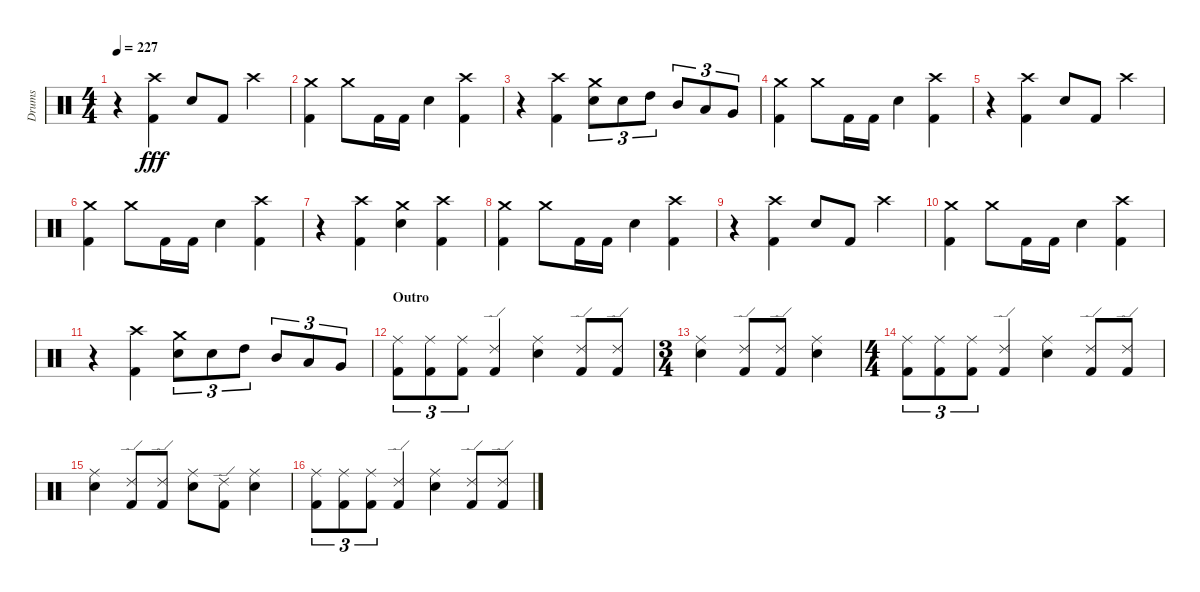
\track ("Drums" "Drums") {instrument percussion}
\staff {score}
\articulation defaults
\ts (4 4)
\tempo 227
\clef neutral
\ks c
r.4{dy fff} ("Kick (hit) 2" "Crash high (hit)").4 "Electric Snare (hit)".8 "Kick (hit) 2".8 "Crash high (hit)".4 |
("Kick (hit) 2" "Crash medium (hit)").4 "Crash medium (hit)".8 "Kick (hit) 2".16 "Kick (hit) 2".16 "Electric Snare (hit)".4 ("Kick (hit) 2" "Crash high (hit)").4 |
r.4 ("Kick (hit) 2" "Crash high (hit)").4 ("Electric Snare (hit)" "Crash medium (hit)").8{tu (3 2)} "Electric Snare (hit)".8{tu (3 2)} "High Tom (hit)".8{tu (3 2)} "Mid Tom (hit)".8{tu (3 2)} "Low Tom (hit)".8{tu (3 2)} "Very Low Tom (hit)".8{tu (3 2)} |
("Kick (hit) 2" "Crash medium (hit)").4 "Crash medium (hit)".8 "Kick (hit) 2".16 "Kick (hit) 2".16 "Electric Snare (hit)".4 ("Kick (hit) 2" "Crash high (hit)").4 |
r.4 ("Kick (hit) 2" "Crash high (hit)").4 "Electric Snare (hit)".8 "Kick (hit) 2".8 "Crash high (hit)".4 |
("Kick (hit) 2" "Crash medium (hit)").4 "Crash medium (hit)".8 "Kick (hit) 2".16 "Kick (hit) 2".16 "Electric Snare (hit)".4 ("Kick (hit) 2" "Crash high (hit)").4 |
r.4 ("Kick (hit) 2" "Crash high (hit)").4 ("Electric Snare (hit)" "Crash medium (hit)").4 ("Kick (hit) 2" "Crash high (hit)").4 |
("Kick (hit) 2" "Crash medium (hit)").4 "Crash medium (hit)".8 "Kick (hit) 2".16 "Kick (hit) 2".16 "Electric Snare (hit)".4 ("Kick (hit) 2" "Crash high (hit)").4 |
r.4 ("Kick (hit) 2" "Crash high (hit)").4 "Electric Snare (hit)".8 "Kick (hit) 2".8 "Crash high (hit)".4 |
("Kick (hit) 2" "Crash medium (hit)").4 "Crash medium (hit)".8 "Kick (hit) 2".16 "Kick (hit) 2".16 "Electric Snare (hit)".4 ("Kick (hit) 2" "Crash high (hit)").4 |
r.4 ("Kick (hit) 2" "Crash high (hit)").4 ("Electric Snare (hit)" "Crash medium (hit)").8{tu (3 2)} "Electric Snare (hit)".8{tu (3 2)} "High Tom (hit)".8{tu (3 2)} "Mid Tom (hit)".8{tu (3 2)} "Low Tom (hit)".8{tu (3 2)} "Very Low Tom (hit)".8{tu (3 2)} |
\section ("" "Outro")
("Kick (hit) 2" "Ride (middle)").8{tu (3 2)} ("Kick (hit) 2" "Ride (middle)").8{tu (3 2)} ("Kick (hit) 2" "Ride (middle)").8{tu (3 2)} ("Kick (hit) 2" "Ride (edge) 2").4 ("Electric Snare (hit)" "Ride (middle)").4 ("Kick (hit) 2" "Ride (edge) 2").8 ("Kick (hit) 2" "Ride (edge) 2").8 |
\ts (3 4)
("Electric Snare (hit)" "Ride (middle)").4 ("Kick (hit) 2" "Ride (edge) 2").8 ("Kick (hit) 2" "Ride (edge) 2").8 ("Electric Snare (hit)" "Ride (middle)").4 |
\ts (4 4)
("Kick (hit) 2" "Ride (middle)").8{tu (3 2)} ("Kick (hit) 2" "Ride (middle)").8{tu (3 2)} ("Kick (hit) 2" "Ride (middle)").8{tu (3 2)} ("Kick (hit) 2" "Ride (edge) 2").4 ("Electric Snare (hit)" "Ride (middle)").4 ("Kick (hit) 2" "Ride (edge) 2").8 ("Kick (hit) 2" "Ride (edge) 2").8 |
("Electric Snare (hit)" "Ride (middle)").4 ("Kick (hit) 2" "Ride (edge) 2").8 ("Kick (hit) 2" "Ride (edge) 2").8 ("Electric Snare (hit)" "Ride (middle)").8 ("Kick (hit) 2" "Ride (edge) 2").8 ("Electric Snare (hit)" "Ride (middle)").4 |
("Kick (hit) 2" "Ride (middle)").8{tu (3 2)} ("Kick (hit) 2" "Ride (middle)").8{tu (3 2)} ("Kick (hit) 2" "Ride (middle)").8{tu (3 2)} ("Kick (hit) 2" "Ride (edge) 2").4 ("Electric Snare (hit)" "Ride (middle)").4 ("Kick (hit) 2" "Ride (edge) 2").8 ("Kick (hit) 2" "Ride (edge) 2").8
